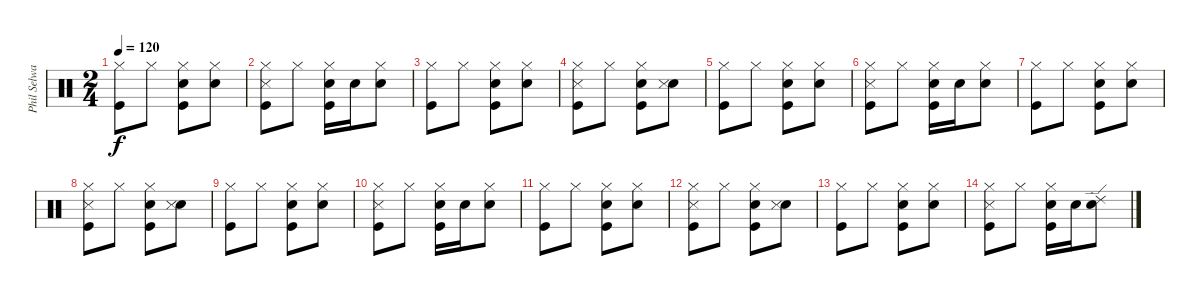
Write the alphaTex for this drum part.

\track ("Phil Selway (Drums)" "Phil Selwa") {instrument percussion}
\staff {score}
\articulation defaults
\ts (2 4)
\tempo 120
\clef neutral
\ks c
("Hi-Hat (closed)" "Kick (hit)").8{dy f} "Hi-Hat (closed)".8 ("Hi-Hat (closed)" "Electric Snare (hit)" "Kick (hit)").8 ("Hi-Hat (closed)" "Electric Snare (hit)").8 |
("Hi-Hat (closed)" "Snare (side stick) 3" "Kick (hit)").8 "Hi-Hat (closed)".8 ("Hi-Hat (closed)" "Electric Snare (hit)" "Kick (hit)").16 "Electric Snare (hit)".16 ("Hi-Hat (closed)" "Electric Snare (hit)").8 |
("Hi-Hat (closed)" "Kick (hit)").8 "Hi-Hat (closed)".8 ("Hi-Hat (closed)" "Electric Snare (hit)" "Kick (hit)").8 ("Hi-Hat (closed)" "Electric Snare (hit)").8 |
("Hi-Hat (closed)" "Snare (side stick) 3" "Kick (hit)").8 "Hi-Hat (closed)".8 ("Hi-Hat (closed)" "Electric Snare (hit)" "Kick (hit)").8 ("Electric Snare (hit)" "Snare (side stick) 3").8 |
("Hi-Hat (closed)" "Kick (hit)").8 "Hi-Hat (closed)".8 ("Hi-Hat (closed)" "Electric Snare (hit)" "Kick (hit)").8 ("Hi-Hat (closed)" "Electric Snare (hit)").8 |
("Hi-Hat (closed)" "Snare (side stick) 3" "Kick (hit)").8 "Hi-Hat (closed)".8 ("Hi-Hat (closed)" "Electric Snare (hit)" "Kick (hit)").16 "Electric Snare (hit)".16 ("Hi-Hat (closed)" "Electric Snare (hit)").8 |
("Hi-Hat (closed)" "Kick (hit)").8 "Hi-Hat (closed)".8 ("Hi-Hat (closed)" "Electric Snare (hit)" "Kick (hit)").8 ("Hi-Hat (closed)" "Electric Snare (hit)").8 |
("Hi-Hat (closed)" "Snare (side stick) 3" "Kick (hit)").8 "Hi-Hat (closed)".8 ("Hi-Hat (closed)" "Electric Snare (hit)" "Kick (hit)").8 ("Electric Snare (hit)" "Snare (side stick) 3").8 |
("Hi-Hat (closed)" "Kick (hit)").8 "Hi-Hat (closed)".8 ("Hi-Hat (closed)" "Electric Snare (hit)" "Kick (hit)").8 ("Hi-Hat (closed)" "Electric Snare (hit)").8 |
("Hi-Hat (closed)" "Snare (side stick) 3" "Kick (hit)").8 "Hi-Hat (closed)".8 ("Hi-Hat (closed)" "Electric Snare (hit)" "Kick (hit)").16 "Electric Snare (hit)".16 ("Hi-Hat (closed)" "Electric Snare (hit)").8 |
("Hi-Hat (closed)" "Kick (hit)").8 "Hi-Hat (closed)".8 ("Hi-Hat (closed)" "Electric Snare (hit)" "Kick (hit)").8 ("Hi-Hat (closed)" "Electric Snare (hit)").8 |
("Hi-Hat (closed)" "Snare (side stick) 3" "Kick (hit)").8 "Hi-Hat (closed)".8 ("Hi-Hat (closed)" "Electric Snare (hit)" "Kick (hit)").8 ("Electric Snare (hit)" "Snare (side stick) 3").8 |
("Hi-Hat (closed)" "Kick (hit)").8 "Hi-Hat (closed)".8 ("Hi-Hat (closed)" "Electric Snare (hit)" "Kick (hit)").8 ("Hi-Hat (closed)" "Electric Snare (hit)").8 |
("Hi-Hat (closed)" "Snare (side stick) 3" "Kick (hit)").8 "Hi-Hat (closed)".8 ("Hi-Hat (closed)" "Electric Snare (hit)" "Kick (hit)").16 "Electric Snare (hit)".16 ("Ride (edge) 2" "Electric Snare (hit)").8
